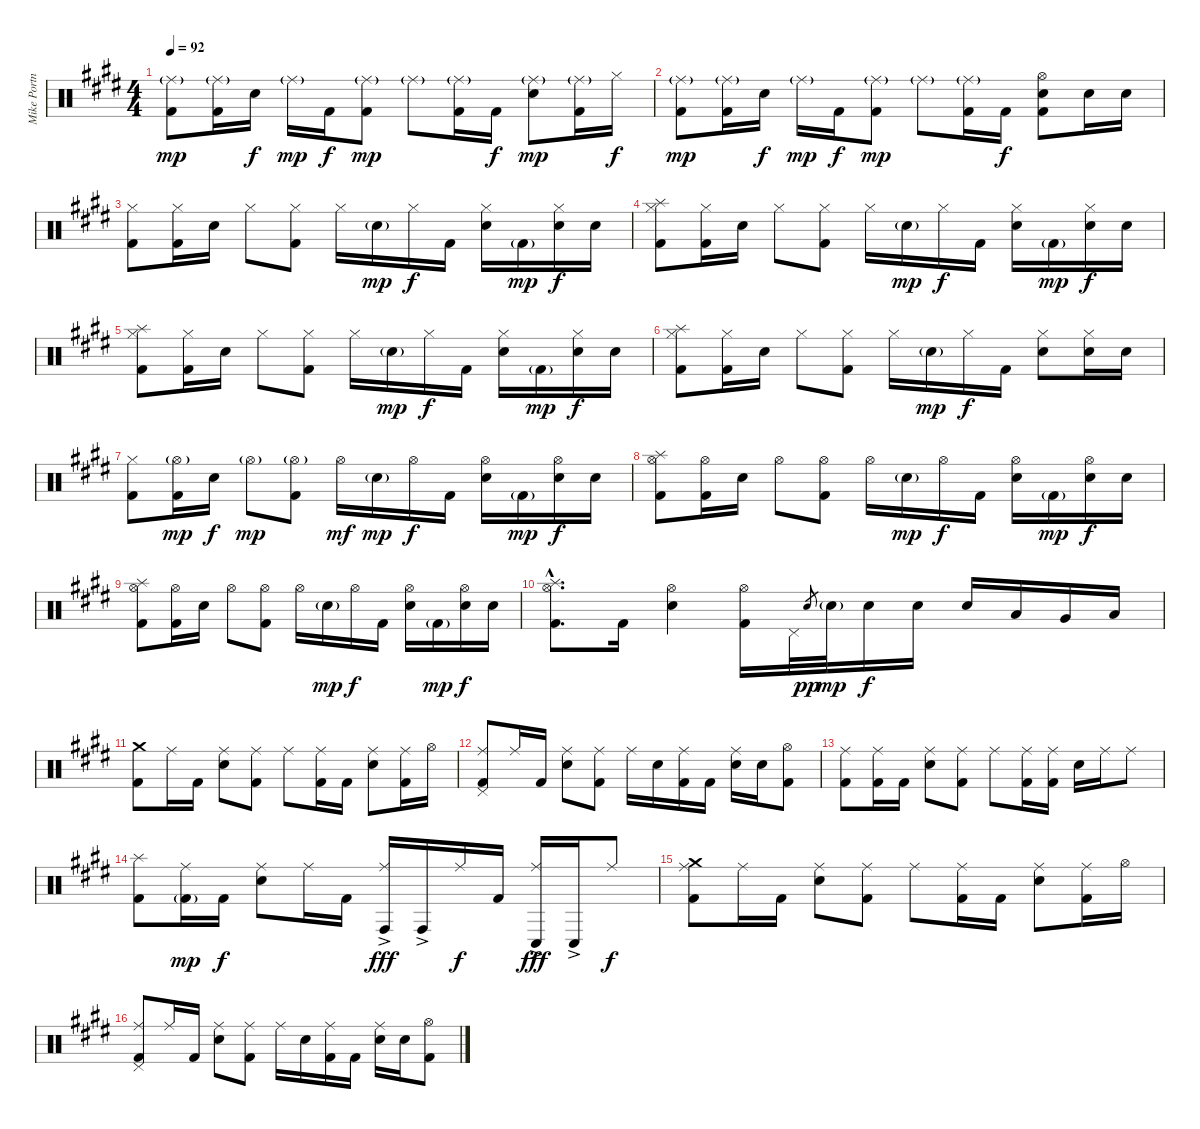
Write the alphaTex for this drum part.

\track ("Mike Portnoy" "Mike Portn") {instrument percussion}
\staff {score}
\articulation defaults
\ts (4 4)
\tempo 92
\clef neutral
\ks e
("Ride (middle)"{g} "Kick (hit) 2").8{dy mp} ("Ride (middle)"{g} "Kick (hit) 2").16 "Snare (hit) 2".16{dy f} "Ride (middle)"{g}.16{dy mp} "Kick (hit) 2".16{dy f} ("Ride (middle)"{g} "Kick (hit) 2").8{dy mp} "Ride (middle)"{g}.8 ("Ride (middle)"{g} "Kick (hit) 2").16 "Kick (hit) 2".16{dy f} ("Ride (middle)"{g} "Snare (hit) 2").8{dy mp} ("Ride (middle)"{g} "Kick (hit) 2").16 "Hi-Hat (closed)".16{dy f} |
("Ride (middle)"{g} "Kick (hit) 2").8{dy mp} ("Ride (middle)"{g} "Kick (hit) 2").16 "Snare (hit) 2".16{dy f} "Ride (middle)"{g}.16{dy mp} "Kick (hit) 2".16{dy f} ("Ride (middle)"{g} "Kick (hit) 2").8{dy mp} "Ride (middle)"{g}.8 ("Ride (middle)"{g} "Kick (hit) 2").16 "Kick (hit) 2".16{dy f} ("Hi-Hat (open)" "Snare (hit) 2" "Kick (hit) 2").8 "Snare (hit) 2".16 "Snare (hit) 2".16 |
("Hi-Hat (closed)" "Kick (hit) 2").8 ("Hi-Hat (closed)" "Kick (hit) 2").16 "Snare (hit) 2".16 "Hi-Hat (closed)".8 ("Hi-Hat (closed)" "Kick (hit) 2").8 "Hi-Hat (closed)".16 "Snare (hit) 2"{g}.16{dy mp} "Hi-Hat (closed)".16{dy f} "Kick (hit) 2".16 ("Hi-Hat (closed)" "Snare (hit) 2").16 "Kick (hit) 2"{g}.16{dy mp} ("Hi-Hat (closed)" "Snare (hit) 2").16{dy f} "Snare (hit) 2".16 |
("Hi-Hat (closed)" "Splash (hit)" "Kick (hit) 2").8 ("Hi-Hat (closed)" "Kick (hit) 2").16 "Snare (hit) 2".16 "Hi-Hat (closed)".8 ("Hi-Hat (closed)" "Kick (hit) 2").8 "Hi-Hat (closed)".16 "Snare (hit) 2"{g}.16{dy mp} "Hi-Hat (closed)".16{dy f} "Kick (hit) 2".16 ("Hi-Hat (closed)" "Snare (hit) 2").16 "Kick (hit) 2"{g}.16{dy mp} ("Hi-Hat (closed)" "Snare (hit) 2").16{dy f} "Snare (hit) 2".16 |
("Hi-Hat (closed)" "Splash (hit)" "Kick (hit) 2").8 ("Hi-Hat (closed)" "Kick (hit) 2").16 "Snare (hit) 2".16 "Hi-Hat (closed)".8 ("Hi-Hat (closed)" "Kick (hit) 2").8 "Hi-Hat (closed)".16 "Snare (hit) 2"{g}.16{dy mp} "Hi-Hat (closed)".16{dy f} "Kick (hit) 2".16 ("Hi-Hat (closed)" "Snare (hit) 2").16 "Kick (hit) 2"{g}.16{dy mp} ("Hi-Hat (closed)" "Snare (hit) 2").16{dy f} "Snare (hit) 2".16 |
("Hi-Hat (closed)" "Splash (hit)" "Kick (hit) 2").8 ("Hi-Hat (closed)" "Kick (hit) 2").16 "Snare (hit) 2".16 "Hi-Hat (closed)".8 ("Hi-Hat (closed)" "Kick (hit) 2").8 "Hi-Hat (closed)".16 "Snare (hit) 2"{g}.16{dy mp} "Hi-Hat (closed)".16{dy f} "Kick (hit) 2".16 ("Hi-Hat (closed)" "Snare (hit) 2").8 ("Hi-Hat (closed)" "Snare (hit) 2").16 "Snare (hit) 2".16 |
("Hi-Hat (closed)" "Kick (hit) 2").8 ("Hi-Hat (open)"{g} "Kick (hit) 2").16{dy mp} "Snare (hit) 2".16{dy f} "Hi-Hat (open)"{g}.8{dy mp} ("Hi-Hat (open)"{g} "Kick (hit) 2").8 "Hi-Hat (open)".16{dy mf} "Snare (hit) 2"{g}.16{dy mp} "Hi-Hat (open)".16{dy f} "Kick (hit) 2".16 ("Hi-Hat (open)" "Snare (hit) 2").16 "Kick (hit) 2"{g}.16{dy mp} ("Hi-Hat (open)" "Snare (hit) 2").16{dy f} "Snare (hit) 2".16 |
("Hi-Hat (open)" "Splash (hit)" "Kick (hit) 2").8 ("Hi-Hat (open)" "Kick (hit) 2").16 "Snare (hit) 2".16 "Hi-Hat (open)".8 ("Hi-Hat (open)" "Kick (hit) 2").8 "Hi-Hat (open)".16 "Snare (hit) 2"{g}.16{dy mp} "Hi-Hat (open)".16{dy f} "Kick (hit) 2".16 ("Hi-Hat (open)" "Snare (hit) 2").16 "Kick (hit) 2"{g}.16{dy mp} ("Hi-Hat (open)" "Snare (hit) 2").16{dy f} "Snare (hit) 2".16 |
("Hi-Hat (open)" "Splash (hit)" "Kick (hit) 2").8 ("Hi-Hat (open)" "Kick (hit) 2").16 "Snare (hit) 2".16 "Hi-Hat (open)".8 ("Hi-Hat (open)" "Kick (hit) 2").8 "Hi-Hat (open)".16 "Snare (hit) 2"{g}.16{dy mp} "Hi-Hat (open)".16{dy f} "Kick (hit) 2".16 ("Hi-Hat (open)" "Snare (hit) 2").16 "Kick (hit) 2"{g}.16{dy mp} ("Hi-Hat (open)" "Snare (hit) 2").16{dy f} "Snare (hit) 2".16 |
("Hi-Hat (open)"{hac} "Splash (hit)"{hac} "Kick (hit) 2"{hac}).8{d} "Kick (hit) 2".16 ("Hi-Hat (open)" "Snare (hit) 2").4 ("Hi-Hat (open)" "Kick (hit) 2").16 "Pedal Hi-Hat (hit)".32 "Snare (hit) 2".8{gr dy pp} "Snare (hit) 2"{g}.32{dy mp} "Snare (hit) 2".16{dy f} "Snare (hit) 2".16 "Snare (hit) 2".16 "Low Tom (hit)".16 "Very Low Tom (hit)".16 "Low Floor Tom (hit)".16 |
("Crash medium (hit)" "Kick (hit) 2").8 "Ride (middle)".16 "Kick (hit) 2".16 ("Ride (middle)" "Snare (hit) 2").8 ("Ride (middle)" "Kick (hit) 2").8 "Ride (middle)".8 ("Ride (middle)" "Kick (hit) 2").16 "Kick (hit) 2".16 ("Ride (middle)" "Snare (hit) 2").8 ("Ride (middle)" "Kick (hit) 2").16 "Hi-Hat (open)".16 |
("Ride (middle)" "Pedal Hi-Hat (hit)" "Kick (hit) 2").8 "Ride (middle)".16 "Kick (hit) 2".16 ("Ride (middle)" "Snare (hit) 2").8 ("Ride (middle)" "Kick (hit) 2").8 "Ride (middle)".16 "Snare (hit) 2".16 ("Ride (middle)" "Kick (hit) 2").16 "Kick (hit) 2".16 ("Ride (middle)" "Snare (hit) 2").16 "Snare (hit) 2".16 ("Hi-Hat (open)" "Kick (hit) 2").8 |
("Ride (middle)" "Kick (hit) 2").8 ("Ride (middle)" "Kick (hit) 2").16 "Kick (hit) 2".16 ("Ride (middle)" "Snare (hit) 2").8 ("Ride (middle)" "Kick (hit) 2").8 "Ride (middle)".8 ("Ride (middle)" "Kick (hit) 2").16 ("Ride (middle)" "Kick (hit) 2").16 "Snare (hit) 2".16 "Ride (middle)".16 "Ride (middle)".8 |
("Splash (hit)" "Kick (hit) 2").8 ("Ride (middle)" "Kick (hit) 2"{g}).16{dy mp} "Kick (hit) 2".16{dy f} ("Ride (middle)" "Snare (hit) 2").8 "Ride (middle)".16 "Kick (hit) 2".16 ("Ride (middle)" "Conga high (hit)"{ac}).16{dy fff} "Conga high (hit)"{ac}.16 "Ride (middle)".16{dy f} "Kick (hit) 2".16 ("Ride (middle)" "Conga low (hit)"{ac}).16{dy fff} "Conga low (hit)"{ac}.16 "Ride (middle)".8{dy f} |
("Crash medium (hit)" "Ride (middle)" "Kick (hit) 2").8 "Ride (middle)".16 "Kick (hit) 2".16 ("Ride (middle)" "Snare (hit) 2").8 ("Ride (middle)" "Kick (hit) 2").8 "Ride (middle)".8 ("Ride (middle)" "Kick (hit) 2").16 "Kick (hit) 2".16 ("Ride (middle)" "Snare (hit) 2").8 ("Ride (middle)" "Kick (hit) 2").16 "Hi-Hat (open)".16 |
("Ride (middle)" "Pedal Hi-Hat (hit)" "Kick (hit) 2").8 "Ride (middle)".16 "Kick (hit) 2".16 ("Ride (middle)" "Snare (hit) 2").8 ("Ride (middle)" "Kick (hit) 2").8 "Ride (middle)".16 "Snare (hit) 2".16 ("Ride (middle)" "Kick (hit) 2").16 "Kick (hit) 2".16 ("Ride (middle)" "Snare (hit) 2").16 "Snare (hit) 2".16 ("Hi-Hat (open)" "Kick (hit) 2").8
